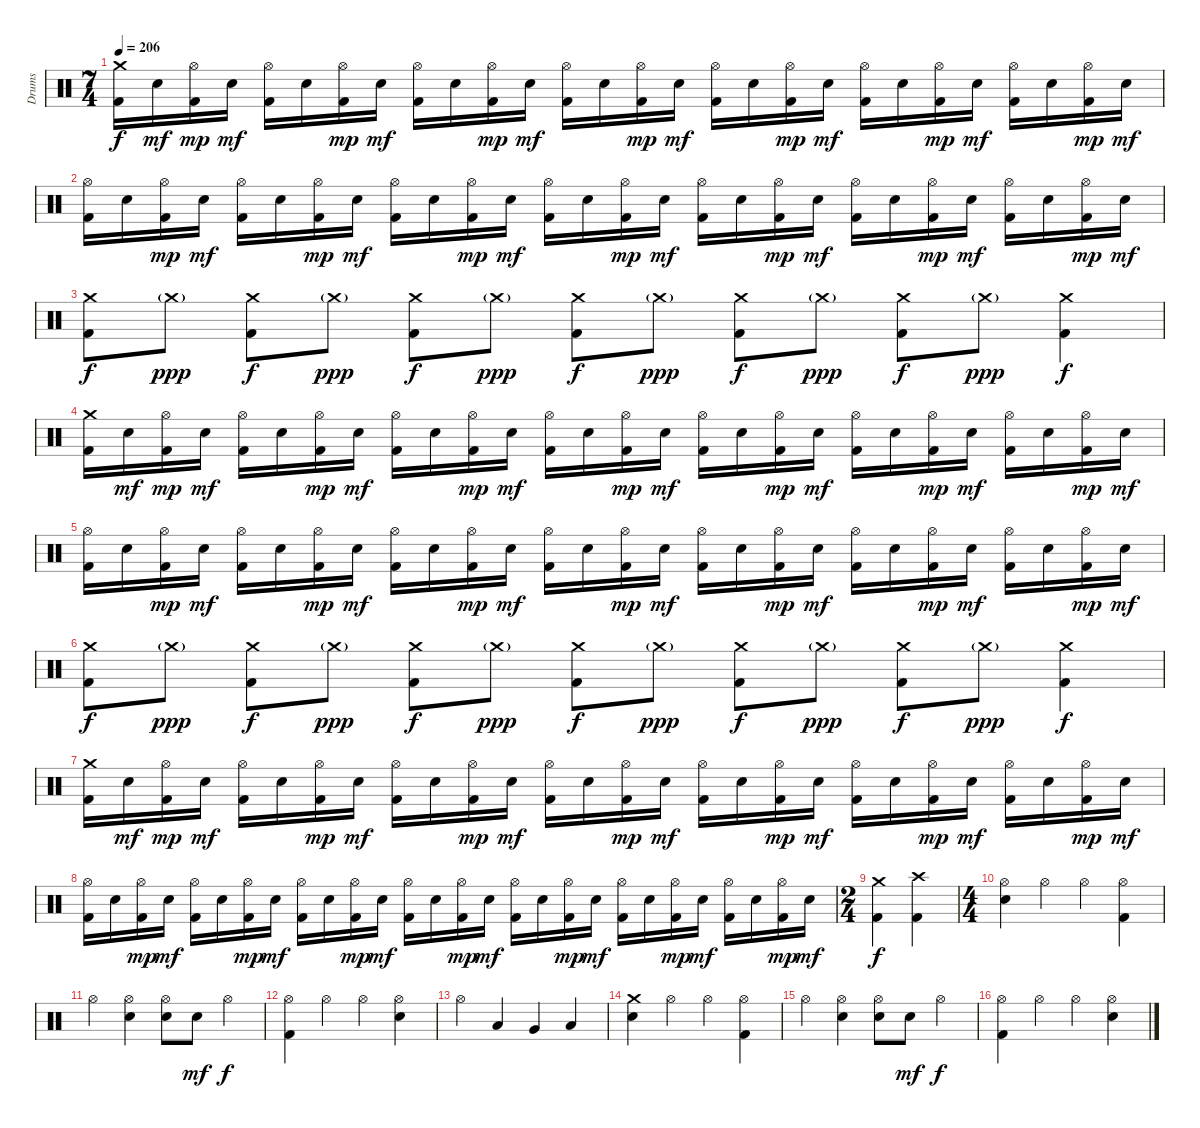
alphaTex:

\track ("Drums" "Drums") {instrument percussion}
\staff {score}
\articulation defaults
\ts (7 4)
\tempo 206
\clef neutral
\ks c
("Crash medium (hit)" "Kick (hit) 2").16{dy f} "Electric Snare (hit)".16{dy mf} ("Hi-Hat (open)" "Kick (hit) 2").16{dy mp} "Electric Snare (hit)".16{dy mf} ("Hi-Hat (open)" "Kick (hit) 2").16 "Electric Snare (hit)".16 ("Hi-Hat (open)" "Kick (hit) 2").16{dy mp} "Electric Snare (hit)".16{dy mf} ("Hi-Hat (open)" "Kick (hit) 2").16 "Electric Snare (hit)".16 ("Hi-Hat (open)" "Kick (hit) 2").16{dy mp} "Electric Snare (hit)".16{dy mf} ("Hi-Hat (open)" "Kick (hit) 2").16 "Electric Snare (hit)".16 ("Hi-Hat (open)" "Kick (hit) 2").16{dy mp} "Electric Snare (hit)".16{dy mf} ("Hi-Hat (open)" "Kick (hit) 2").16 "Electric Snare (hit)".16 ("Hi-Hat (open)" "Kick (hit) 2").16{dy mp} "Electric Snare (hit)".16{dy mf} ("Hi-Hat (open)" "Kick (hit) 2").16 "Electric Snare (hit)".16 ("Hi-Hat (open)" "Kick (hit) 2").16{dy mp} "Electric Snare (hit)".16{dy mf} ("Hi-Hat (open)" "Kick (hit) 2").16 "Electric Snare (hit)".16 ("Hi-Hat (open)" "Kick (hit) 2").16{dy mp} "Electric Snare (hit)".16{dy mf} |
("Hi-Hat (open)" "Kick (hit) 2").16 "Electric Snare (hit)".16 ("Hi-Hat (open)" "Kick (hit) 2").16{dy mp} "Electric Snare (hit)".16{dy mf} ("Hi-Hat (open)" "Kick (hit) 2").16 "Electric Snare (hit)".16 ("Hi-Hat (open)" "Kick (hit) 2").16{dy mp} "Electric Snare (hit)".16{dy mf} ("Hi-Hat (open)" "Kick (hit) 2").16 "Electric Snare (hit)".16 ("Hi-Hat (open)" "Kick (hit) 2").16{dy mp} "Electric Snare (hit)".16{dy mf} ("Hi-Hat (open)" "Kick (hit) 2").16 "Electric Snare (hit)".16 ("Hi-Hat (open)" "Kick (hit) 2").16{dy mp} "Electric Snare (hit)".16{dy mf} ("Hi-Hat (open)" "Kick (hit) 2").16 "Electric Snare (hit)".16 ("Hi-Hat (open)" "Kick (hit) 2").16{dy mp} "Electric Snare (hit)".16{dy mf} ("Hi-Hat (open)" "Kick (hit) 2").16 "Electric Snare (hit)".16 ("Hi-Hat (open)" "Kick (hit) 2").16{dy mp} "Electric Snare (hit)".16{dy mf} ("Hi-Hat (open)" "Kick (hit) 2").16 "Electric Snare (hit)".16 ("Hi-Hat (open)" "Kick (hit) 2").16{dy mp} "Electric Snare (hit)".16{dy mf} |
("Crash medium (hit)" "Kick (hit) 2").8{dy f} "Crash medium (hit)"{g}.8{dy ppp} ("Crash medium (hit)" "Kick (hit) 2").8{dy f} "Crash medium (hit)"{g}.8{dy ppp} ("Crash medium (hit)" "Kick (hit) 2").8{dy f} "Crash medium (hit)"{g}.8{dy ppp} ("Crash medium (hit)" "Kick (hit) 2").8{dy f} "Crash medium (hit)"{g}.8{dy ppp} ("Crash medium (hit)" "Kick (hit) 2").8{dy f} "Crash medium (hit)"{g}.8{dy ppp} ("Crash medium (hit)" "Kick (hit) 2").8{dy f} "Crash medium (hit)"{g}.8{dy ppp} ("Crash medium (hit)" "Kick (hit) 2").4{dy f} |
("Crash medium (hit)" "Kick (hit) 2").16 "Electric Snare (hit)".16{dy mf} ("Hi-Hat (open)" "Kick (hit) 2").16{dy mp} "Electric Snare (hit)".16{dy mf} ("Hi-Hat (open)" "Kick (hit) 2").16 "Electric Snare (hit)".16 ("Hi-Hat (open)" "Kick (hit) 2").16{dy mp} "Electric Snare (hit)".16{dy mf} ("Hi-Hat (open)" "Kick (hit) 2").16 "Electric Snare (hit)".16 ("Hi-Hat (open)" "Kick (hit) 2").16{dy mp} "Electric Snare (hit)".16{dy mf} ("Hi-Hat (open)" "Kick (hit) 2").16 "Electric Snare (hit)".16 ("Hi-Hat (open)" "Kick (hit) 2").16{dy mp} "Electric Snare (hit)".16{dy mf} ("Hi-Hat (open)" "Kick (hit) 2").16 "Electric Snare (hit)".16 ("Hi-Hat (open)" "Kick (hit) 2").16{dy mp} "Electric Snare (hit)".16{dy mf} ("Hi-Hat (open)" "Kick (hit) 2").16 "Electric Snare (hit)".16 ("Hi-Hat (open)" "Kick (hit) 2").16{dy mp} "Electric Snare (hit)".16{dy mf} ("Hi-Hat (open)" "Kick (hit) 2").16 "Electric Snare (hit)".16 ("Hi-Hat (open)" "Kick (hit) 2").16{dy mp} "Electric Snare (hit)".16{dy mf} |
("Hi-Hat (open)" "Kick (hit) 2").16 "Electric Snare (hit)".16 ("Hi-Hat (open)" "Kick (hit) 2").16{dy mp} "Electric Snare (hit)".16{dy mf} ("Hi-Hat (open)" "Kick (hit) 2").16 "Electric Snare (hit)".16 ("Hi-Hat (open)" "Kick (hit) 2").16{dy mp} "Electric Snare (hit)".16{dy mf} ("Hi-Hat (open)" "Kick (hit) 2").16 "Electric Snare (hit)".16 ("Hi-Hat (open)" "Kick (hit) 2").16{dy mp} "Electric Snare (hit)".16{dy mf} ("Hi-Hat (open)" "Kick (hit) 2").16 "Electric Snare (hit)".16 ("Hi-Hat (open)" "Kick (hit) 2").16{dy mp} "Electric Snare (hit)".16{dy mf} ("Hi-Hat (open)" "Kick (hit) 2").16 "Electric Snare (hit)".16 ("Hi-Hat (open)" "Kick (hit) 2").16{dy mp} "Electric Snare (hit)".16{dy mf} ("Hi-Hat (open)" "Kick (hit) 2").16 "Electric Snare (hit)".16 ("Hi-Hat (open)" "Kick (hit) 2").16{dy mp} "Electric Snare (hit)".16{dy mf} ("Hi-Hat (open)" "Kick (hit) 2").16 "Electric Snare (hit)".16 ("Hi-Hat (open)" "Kick (hit) 2").16{dy mp} "Electric Snare (hit)".16{dy mf} |
("Crash medium (hit)" "Kick (hit) 2").8{dy f} "Crash medium (hit)"{g}.8{dy ppp} ("Crash medium (hit)" "Kick (hit) 2").8{dy f} "Crash medium (hit)"{g}.8{dy ppp} ("Crash medium (hit)" "Kick (hit) 2").8{dy f} "Crash medium (hit)"{g}.8{dy ppp} ("Crash medium (hit)" "Kick (hit) 2").8{dy f} "Crash medium (hit)"{g}.8{dy ppp} ("Crash medium (hit)" "Kick (hit) 2").8{dy f} "Crash medium (hit)"{g}.8{dy ppp} ("Crash medium (hit)" "Kick (hit) 2").8{dy f} "Crash medium (hit)"{g}.8{dy ppp} ("Crash medium (hit)" "Kick (hit) 2").4{dy f} |
("Crash medium (hit)" "Kick (hit) 2").16 "Electric Snare (hit)".16{dy mf} ("Hi-Hat (open)" "Kick (hit) 2").16{dy mp} "Electric Snare (hit)".16{dy mf} ("Hi-Hat (open)" "Kick (hit) 2").16 "Electric Snare (hit)".16 ("Hi-Hat (open)" "Kick (hit) 2").16{dy mp} "Electric Snare (hit)".16{dy mf} ("Hi-Hat (open)" "Kick (hit) 2").16 "Electric Snare (hit)".16 ("Hi-Hat (open)" "Kick (hit) 2").16{dy mp} "Electric Snare (hit)".16{dy mf} ("Hi-Hat (open)" "Kick (hit) 2").16 "Electric Snare (hit)".16 ("Hi-Hat (open)" "Kick (hit) 2").16{dy mp} "Electric Snare (hit)".16{dy mf} ("Hi-Hat (open)" "Kick (hit) 2").16 "Electric Snare (hit)".16 ("Hi-Hat (open)" "Kick (hit) 2").16{dy mp} "Electric Snare (hit)".16{dy mf} ("Hi-Hat (open)" "Kick (hit) 2").16 "Electric Snare (hit)".16 ("Hi-Hat (open)" "Kick (hit) 2").16{dy mp} "Electric Snare (hit)".16{dy mf} ("Hi-Hat (open)" "Kick (hit) 2").16 "Electric Snare (hit)".16 ("Hi-Hat (open)" "Kick (hit) 2").16{dy mp} "Electric Snare (hit)".16{dy mf} |
("Hi-Hat (open)" "Kick (hit) 2").16 "Electric Snare (hit)".16 ("Hi-Hat (open)" "Kick (hit) 2").16{dy mp} "Electric Snare (hit)".16{dy mf} ("Hi-Hat (open)" "Kick (hit) 2").16 "Electric Snare (hit)".16 ("Hi-Hat (open)" "Kick (hit) 2").16{dy mp} "Electric Snare (hit)".16{dy mf} ("Hi-Hat (open)" "Kick (hit) 2").16 "Electric Snare (hit)".16 ("Hi-Hat (open)" "Kick (hit) 2").16{dy mp} "Electric Snare (hit)".16{dy mf} ("Hi-Hat (open)" "Kick (hit) 2").16 "Electric Snare (hit)".16 ("Hi-Hat (open)" "Kick (hit) 2").16{dy mp} "Electric Snare (hit)".16{dy mf} ("Hi-Hat (open)" "Kick (hit) 2").16 "Electric Snare (hit)".16 ("Hi-Hat (open)" "Kick (hit) 2").16{dy mp} "Electric Snare (hit)".16{dy mf} ("Hi-Hat (open)" "Kick (hit) 2").16 "Electric Snare (hit)".16 ("Hi-Hat (open)" "Kick (hit) 2").16{dy mp} "Electric Snare (hit)".16{dy mf} ("Hi-Hat (open)" "Kick (hit) 2").16 "Electric Snare (hit)".16 ("Hi-Hat (open)" "Kick (hit) 2").16{dy mp} "Electric Snare (hit)".16{dy mf} |
\ts (2 4)
("Crash medium (hit)" "Kick (hit) 2").4{dy f} ("Crash high (hit)" "Kick (hit) 2").4 |
\ts (4 4)
("Hi-Hat (open)" "Electric Snare (hit)").4 "Hi-Hat (open)".4 "Hi-Hat (open)".4 ("Hi-Hat (open)" "Kick (hit) 2").4 |
"Hi-Hat (open)".4 ("Hi-Hat (open)" "Electric Snare (hit)").4 ("Hi-Hat (open)" "Electric Snare (hit)").8 "Electric Snare (hit)".8{dy mf} "Hi-Hat (open)".4{dy f} |
("Hi-Hat (open)" "Kick (hit) 2").4 "Hi-Hat (open)".4 "Hi-Hat (open)".4 ("Hi-Hat (open)" "Electric Snare (hit)").4 |
"Hi-Hat (open)".4 "Low Tom (hit)".4 "Very Low Tom (hit)".4 "Low Floor Tom (hit)".4 |
("Crash medium (hit)" "Electric Snare (hit)").4 "Hi-Hat (open)".4 "Hi-Hat (open)".4 ("Hi-Hat (open)" "Kick (hit) 2").4 |
"Hi-Hat (open)".4 ("Hi-Hat (open)" "Electric Snare (hit)").4 ("Hi-Hat (open)" "Electric Snare (hit)").8 "Electric Snare (hit)".8{dy mf} "Hi-Hat (open)".4{dy f} |
("Hi-Hat (open)" "Kick (hit) 2").4 "Hi-Hat (open)".4 "Hi-Hat (open)".4 ("Hi-Hat (open)" "Electric Snare (hit)").4
